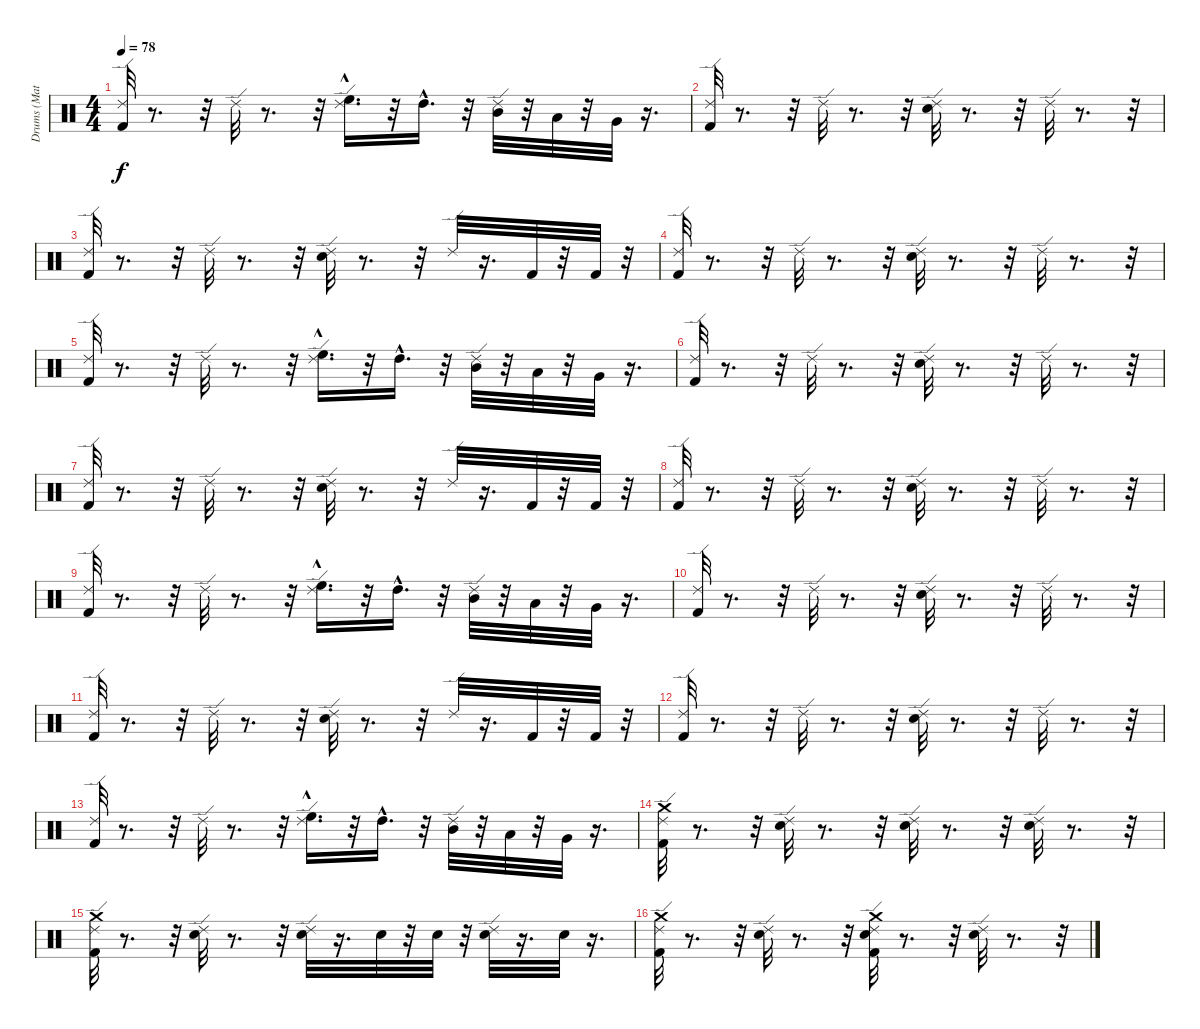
\track ("Drums (Matt)" "Drums (Mat") {instrument percussion}
\staff {score}
\articulation defaults
\ts (4 4)
\tempo 78
\clef neutral
\ks c
("Ride (edge) 2" "Kick (hit) 2").32{dy f} r.8{d} r.32 "Ride (edge) 2".32 r.8{d} r.32 ("Ride (edge) 2" "High Floor Tom (hit)"{hac}).16{d} r.32 "High Tom (hit)"{hac}.16{d} r.32 ("Ride (edge) 2" "Mid Tom (hit)").32 r.32 "Low Tom (hit)".32 r.32 "Very Low Tom (hit)".32 r.16{d} |
("Ride (edge) 2" "Kick (hit) 2").32 r.8{d} r.32 "Ride (edge) 2".32 r.8{d} r.32 ("Ride (edge) 2" "Snare (hit) 2").32 r.8{d} r.32 "Ride (edge) 2".32 r.8{d} r.32 |
("Ride (edge) 2" "Kick (hit) 2").32 r.8{d} r.32 "Ride (edge) 2".32 r.8{d} r.32 ("Ride (edge) 2" "Snare (hit) 2").32 r.8{d} r.32 "Ride (edge) 2".32 r.16{d} "Kick (hit) 2".32 r.32 "Kick (hit) 2".32 r.32 |
("Ride (edge) 2" "Kick (hit) 2").32 r.8{d} r.32 "Ride (edge) 2".32 r.8{d} r.32 ("Ride (edge) 2" "Snare (hit) 2").32 r.8{d} r.32 "Ride (edge) 2".32 r.8{d} r.32 |
("Ride (edge) 2" "Kick (hit) 2").32 r.8{d} r.32 "Ride (edge) 2".32 r.8{d} r.32 ("Ride (edge) 2" "High Floor Tom (hit)"{hac}).16{d} r.32 "High Tom (hit)"{hac}.16{d} r.32 ("Ride (edge) 2" "Mid Tom (hit)").32 r.32 "Low Tom (hit)".32 r.32 "Very Low Tom (hit)".32 r.16{d} |
("Ride (edge) 2" "Kick (hit) 2").32 r.8{d} r.32 "Ride (edge) 2".32 r.8{d} r.32 ("Ride (edge) 2" "Snare (hit) 2").32 r.8{d} r.32 "Ride (edge) 2".32 r.8{d} r.32 |
("Ride (edge) 2" "Kick (hit) 2").32 r.8{d} r.32 "Ride (edge) 2".32 r.8{d} r.32 ("Ride (edge) 2" "Snare (hit) 2").32 r.8{d} r.32 "Ride (edge) 2".32 r.16{d} "Kick (hit) 2".32 r.32 "Kick (hit) 2".32 r.32 |
("Ride (edge) 2" "Kick (hit) 2").32 r.8{d} r.32 "Ride (edge) 2".32 r.8{d} r.32 ("Ride (edge) 2" "Snare (hit) 2").32 r.8{d} r.32 "Ride (edge) 2".32 r.8{d} r.32 |
("Ride (edge) 2" "Kick (hit) 2").32 r.8{d} r.32 "Ride (edge) 2".32 r.8{d} r.32 ("Ride (edge) 2" "High Floor Tom (hit)"{hac}).16{d} r.32 "High Tom (hit)"{hac}.16{d} r.32 ("Ride (edge) 2" "Mid Tom (hit)").32 r.32 "Low Tom (hit)".32 r.32 "Very Low Tom (hit)".32 r.16{d} |
("Ride (edge) 2" "Kick (hit) 2").32 r.8{d} r.32 "Ride (edge) 2".32 r.8{d} r.32 ("Ride (edge) 2" "Snare (hit) 2").32 r.8{d} r.32 "Ride (edge) 2".32 r.8{d} r.32 |
("Ride (edge) 2" "Kick (hit) 2").32 r.8{d} r.32 "Ride (edge) 2".32 r.8{d} r.32 ("Ride (edge) 2" "Snare (hit) 2").32 r.8{d} r.32 "Ride (edge) 2".32 r.16{d} "Kick (hit) 2".32 r.32 "Kick (hit) 2".32 r.32 |
("Ride (edge) 2" "Kick (hit) 2").32 r.8{d} r.32 "Ride (edge) 2".32 r.8{d} r.32 ("Ride (edge) 2" "Snare (hit) 2").32 r.8{d} r.32 "Ride (edge) 2".32 r.8{d} r.32 |
("Ride (edge) 2" "Kick (hit) 2").32 r.8{d} r.32 "Ride (edge) 2".32 r.8{d} r.32 ("Ride (edge) 2" "High Floor Tom (hit)"{hac}).16{d} r.32 "High Tom (hit)"{hac}.16{d} r.32 ("Ride (edge) 2" "Mid Tom (hit)").32 r.32 "Low Tom (hit)".32 r.32 "Very Low Tom (hit)".32 r.16{d} |
("Crash medium (hit)" "Ride (edge) 2" "Kick (hit) 2").32 r.8{d} r.32 ("Ride (edge) 2" "Snare (hit) 2").32 r.8{d} r.32 ("Ride (edge) 2" "Snare (hit) 2").32 r.8{d} r.32 ("Ride (edge) 2" "Snare (hit) 2").32 r.8{d} r.32 |
("Crash medium (hit)" "Ride (edge) 2" "Kick (hit) 2").32 r.8{d} r.32 ("Ride (edge) 2" "Snare (hit) 2").32 r.8{d} r.32 ("Ride (edge) 2" "Snare (hit) 2").32 r.16{d} "Snare (hit) 2".32 r.32 "Snare (hit) 2".32 r.32 ("Ride (edge) 2" "Snare (hit) 2").32 r.16{d} "Snare (hit) 2".32 r.16{d} |
("Crash medium (hit)" "Ride (edge) 2" "Kick (hit) 2").32 r.8{d} r.32 ("Ride (edge) 2" "Snare (hit) 2").32 r.8{d} r.32 ("Ride (edge) 2" "Snare (hit) 2" "Crash medium (hit)" "Kick (hit) 2").32 r.8{d} r.32 ("Ride (edge) 2" "Snare (hit) 2").32 r.8{d} r.32
